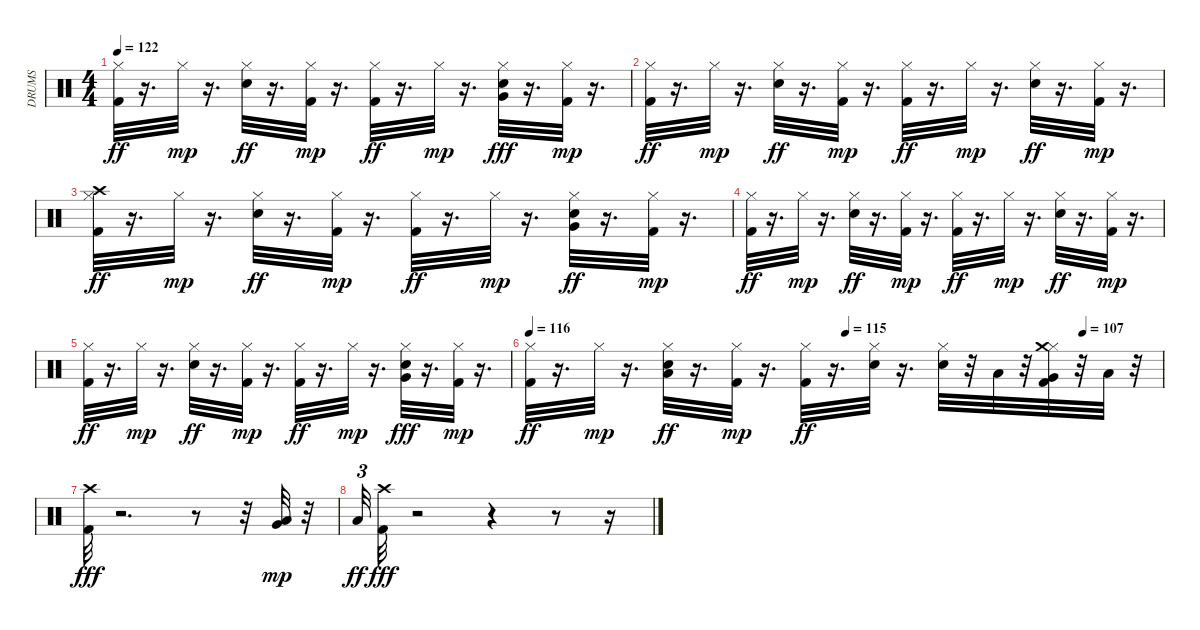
\track ("DRUMS" "DRUMS") {instrument percussion}
\staff {score}
\articulation defaults
\ts (4 4)
\tempo 122
\clef neutral
\ks c
("Hi-Hat (closed)" "Kick (hit) 2").32{dy ff} r.16{d} "Hi-Hat (closed)".32{dy mp} r.16{d} ("Snare (hit) 2" "Hi-Hat (closed)").32{dy ff} r.16{d} ("Hi-Hat (closed)" "Kick (hit) 2").32{dy mp} r.16{d} ("Hi-Hat (closed)" "Kick (hit) 2").32{dy ff} r.16{d} "Hi-Hat (closed)".32{dy mp} r.16{d} ("Snare (hit) 2" "Hi-Hat (closed)" "Very Low Tom (hit)").32{dy fff} r.16{d} ("Hi-Hat (closed)" "Kick (hit) 2").32{dy mp} r.16{d} |
("Hi-Hat (closed)" "Kick (hit) 2").32{dy ff} r.16{d} "Hi-Hat (closed)".32{dy mp} r.16{d} ("Hi-Hat (closed)" "Snare (hit) 2").32{dy ff} r.16{d} ("Hi-Hat (closed)" "Kick (hit) 2").32{dy mp} r.16{d} ("Kick (hit) 2" "Hi-Hat (closed)").32{dy ff} r.16{d} "Hi-Hat (closed)".32{dy mp} r.16{d} ("Hi-Hat (closed)" "Snare (hit) 2").32{dy ff} r.16{d} ("Hi-Hat (closed)" "Kick (hit) 2").32{dy mp} r.16{d} |
("Kick (hit) 2" "Hi-Hat (closed)" "Crash high (hit)").32{dy ff} r.16{d} "Hi-Hat (closed)".32{dy mp} r.16{d} ("Hi-Hat (closed)" "Snare (hit) 2").32{dy ff} r.16{d} ("Kick (hit) 2" "Hi-Hat (closed)").32{dy mp} r.16{d} ("Kick (hit) 2" "Hi-Hat (closed)").32{dy ff} r.16{d} "Hi-Hat (closed)".32{dy mp} r.16{d} ("Hi-Hat (closed)" "Very Low Tom (hit)" "Snare (hit) 2").32{dy ff} r.16{d} ("Kick (hit) 2" "Hi-Hat (closed)").32{dy mp} r.16{d} |
("Kick (hit) 2" "Hi-Hat (closed)").32{dy ff} r.16{d} "Hi-Hat (closed)".32{dy mp} r.16{d} ("Snare (hit) 2" "Hi-Hat (closed)").32{dy ff} r.16{d} ("Kick (hit) 2" "Hi-Hat (closed)").32{dy mp} r.16{d} ("Hi-Hat (closed)" "Kick (hit) 2").32{dy ff} r.16{d} "Hi-Hat (closed)".32{dy mp} r.16{d} ("Snare (hit) 2" "Hi-Hat (closed)").32{dy ff} r.16{d} ("Kick (hit) 2" "Hi-Hat (closed)").32{dy mp} r.16{d} |
("Kick (hit) 2" "Hi-Hat (closed)").32{dy ff} r.16{d} "Hi-Hat (closed)".32{dy mp} r.16{d} ("Hi-Hat (closed)" "Snare (hit) 2").32{dy ff} r.16{d} ("Hi-Hat (closed)" "Kick (hit) 2").32{dy mp} r.16{d} ("Hi-Hat (closed)" "Kick (hit) 2").32{dy ff} r.16{d} "Hi-Hat (closed)".32{dy mp} r.16{d} ("Snare (hit) 2" "Very Low Tom (hit)" "Hi-Hat (closed)").32{dy fff} r.16{d} ("Kick (hit) 2" "Hi-Hat (closed)").32{dy mp} r.16{d} |
\tempo 116
\tempo (115 0.5)
\tempo (107 0.875)
("Hi-Hat (closed)" "Kick (hit) 2").32{dy ff} r.16{d} "Hi-Hat (closed)".32{dy mp} r.16{d} ("Low Tom (hit)" "Snare (hit) 2" "Hi-Hat (closed)").32{dy ff} r.16{d} ("Kick (hit) 2" "Hi-Hat (closed)").32{dy mp} r.16{d} ("Kick (hit) 2" "Hi-Hat (closed)").32{dy ff} r.16{d} ("Hi-Hat (closed)" "Snare (hit) 2").32 r.16{d} ("Snare (hit) 2" "Hi-Hat (closed)").32 r.32 "Low Tom (hit)".32 r.32 ("Kick (hit) 2" "Hi-Hat (closed)" "Crash medium (hit)" "Very Low Tom (hit)").32 r.32 "Low Floor Tom (hit)".32 r.32 |
("Crash high (hit)" "Kick (hit) 2").32{dy fff} r.2{d} r.8 r.32 ("Low Tom (hit)" "Very Low Tom (hit)").32{dy mp} r.32 |
"Low Floor Tom (hit)".32{tu (3 2) dy ff} ("Crash high (hit)" "Kick (hit) 2").32{dy fff} r.2 r.4 r.8 r.16
